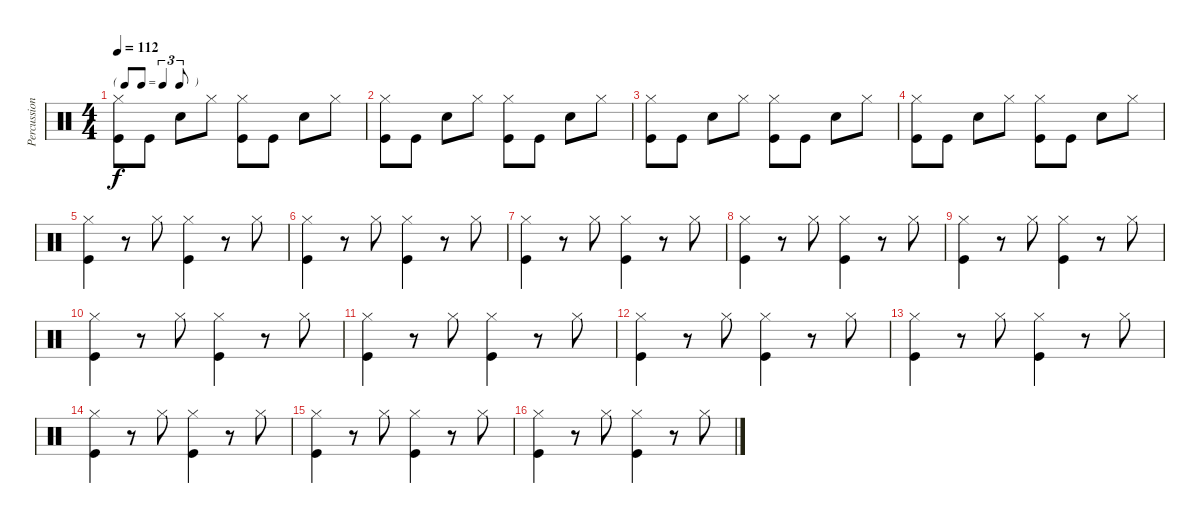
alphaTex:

\track ("Percussion" "Percussion") {instrument percussion}
\staff {score}
\articulation defaults
\ts (4 4)
\tf triplet8th
\tempo 112
\clef neutral
\ks c
("Hi-Hat (closed)" "Kick (hit)").8{dy f} "Kick (hit)".8 "Snare (hit) 2".8 "Hi-Hat (closed)".8 ("Hi-Hat (closed)" "Kick (hit)").8 "Kick (hit)".8 "Snare (hit) 2".8 "Hi-Hat (closed)".8 |
("Hi-Hat (closed)" "Kick (hit)").8 "Kick (hit)".8 "Snare (hit) 2".8 "Hi-Hat (closed)".8 ("Hi-Hat (closed)" "Kick (hit)").8 "Kick (hit)".8 "Snare (hit) 2".8 "Hi-Hat (closed)".8 |
("Hi-Hat (closed)" "Kick (hit)").8 "Kick (hit)".8 "Snare (hit) 2".8 "Hi-Hat (closed)".8 ("Hi-Hat (closed)" "Kick (hit)").8 "Kick (hit)".8 "Snare (hit) 2".8 "Hi-Hat (closed)".8 |
("Hi-Hat (closed)" "Kick (hit)").8 "Kick (hit)".8 "Snare (hit) 2".8 "Hi-Hat (closed)".8 ("Hi-Hat (closed)" "Kick (hit)").8 "Kick (hit)".8 "Snare (hit) 2".8 "Hi-Hat (closed)".8 |
("Hi-Hat (closed)" "Kick (hit)").4 r.8 "Hi-Hat (closed)".8 ("Hi-Hat (closed)" "Kick (hit)").4 r.8 "Hi-Hat (closed)".8 |
("Hi-Hat (closed)" "Kick (hit)").4 r.8 "Hi-Hat (closed)".8 ("Hi-Hat (closed)" "Kick (hit)").4 r.8 "Hi-Hat (closed)".8 |
("Hi-Hat (closed)" "Kick (hit)").4 r.8 "Hi-Hat (closed)".8 ("Hi-Hat (closed)" "Kick (hit)").4 r.8 "Hi-Hat (closed)".8 |
("Hi-Hat (closed)" "Kick (hit)").4 r.8 "Hi-Hat (closed)".8 ("Hi-Hat (closed)" "Kick (hit)").4 r.8 "Hi-Hat (closed)".8 |
("Hi-Hat (closed)" "Kick (hit)").4 r.8 "Hi-Hat (closed)".8 ("Hi-Hat (closed)" "Kick (hit)").4 r.8 "Hi-Hat (closed)".8 |
("Hi-Hat (closed)" "Kick (hit)").4 r.8 "Hi-Hat (closed)".8 ("Hi-Hat (closed)" "Kick (hit)").4 r.8 "Hi-Hat (closed)".8 |
("Hi-Hat (closed)" "Kick (hit)").4 r.8 "Hi-Hat (closed)".8 ("Hi-Hat (closed)" "Kick (hit)").4 r.8 "Hi-Hat (closed)".8 |
("Hi-Hat (closed)" "Kick (hit)").4 r.8 "Hi-Hat (closed)".8 ("Hi-Hat (closed)" "Kick (hit)").4 r.8 "Hi-Hat (closed)".8 |
("Hi-Hat (closed)" "Kick (hit)").4 r.8 "Hi-Hat (closed)".8 ("Hi-Hat (closed)" "Kick (hit)").4 r.8 "Hi-Hat (closed)".8 |
("Hi-Hat (closed)" "Kick (hit)").4 r.8 "Hi-Hat (closed)".8 ("Hi-Hat (closed)" "Kick (hit)").4 r.8 "Hi-Hat (closed)".8 |
("Hi-Hat (closed)" "Kick (hit)").4 r.8 "Hi-Hat (closed)".8 ("Hi-Hat (closed)" "Kick (hit)").4 r.8 "Hi-Hat (closed)".8 |
("Hi-Hat (closed)" "Kick (hit)").4 r.8 "Hi-Hat (closed)".8 ("Hi-Hat (closed)" "Kick (hit)").4 r.8 "Hi-Hat (closed)".8
